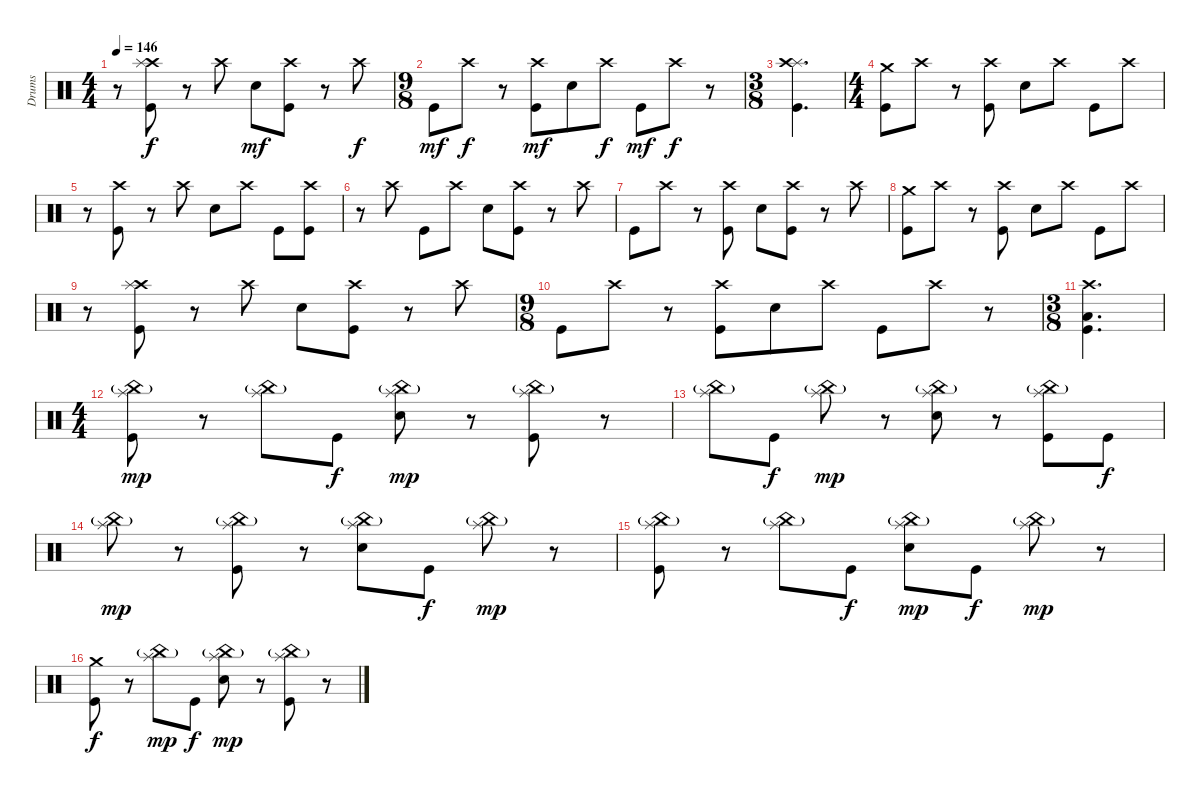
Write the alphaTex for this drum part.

\track ("Drums" "Drums") {instrument percussion}
\staff {score}
\articulation defaults
\ts (4 4)
\tempo 146
\clef neutral
\ks c
r.8{dy f} ("Crash high (hit)" "Splash (hit)" "Kick (hit)").8 r.8 "Crash high (hit)".8 "Electric Snare (hit)".8{dy mf} ("Crash high (hit)" "Kick (hit)").8 r.8 "Crash high (hit)".8{dy f} |
\ts (9 8)
"Kick (hit)".8{dy mf} "Crash high (hit)".8{dy f} r.8 ("Crash high (hit)" "Kick (hit)").8{dy mf} "Electric Snare (hit)".8 "Crash high (hit)".8{dy f} "Kick (hit)".8{dy mf} "Crash high (hit)".8{dy f} r.8 |
\ts (3 8)
("Splash (hit)" "Crash high (hit)" "Kick (hit)").4{d} |
\ts (4 4)
("Crash medium (hit)" "Kick (hit)").8 "Crash high (hit)".8 r.8 ("Crash high (hit)" "Kick (hit)").8 "Electric Snare (hit)".8 "Crash high (hit)".8 "Kick (hit)".8 "Crash high (hit)".8 |
r.8 ("Crash high (hit)" "Kick (hit)").8 r.8 "Crash high (hit)".8 "Electric Snare (hit)".8 "Crash high (hit)".8 "Kick (hit)".8 ("Crash high (hit)" "Kick (hit)").8 |
r.8 "Crash high (hit)".8 "Kick (hit)".8 "Crash high (hit)".8 "Electric Snare (hit)".8 ("Crash high (hit)" "Kick (hit)").8 r.8 "Crash high (hit)".8 |
"Kick (hit)".8 "Crash high (hit)".8 r.8 ("Crash high (hit)" "Kick (hit)").8 "Electric Snare (hit)".8 ("Crash high (hit)" "Kick (hit)").8 r.8 "Crash high (hit)".8 |
("Crash medium (hit)" "Kick (hit)").8 "Crash high (hit)".8 r.8 ("Crash high (hit)" "Kick (hit)").8 "Electric Snare (hit)".8 "Crash high (hit)".8 "Kick (hit)".8 "Crash high (hit)".8 |
r.8 ("Crash high (hit)" "Splash (hit)" "Kick (hit)").8 r.8 "Crash high (hit)".8 "Electric Snare (hit)".8 ("Crash high (hit)" "Kick (hit)").8 r.8 "Crash high (hit)".8 |
\ts (9 8)
"Kick (hit)".8 "Crash high (hit)".8 r.8 ("Crash high (hit)" "Kick (hit)").8 "Electric Snare (hit)".8 "Crash high (hit)".8 "Kick (hit)".8 "Crash high (hit)".8 r.8 |
\ts (3 8)
("Crash high (hit)" "Low Floor Tom (hit)" "Kick (hit)").4{d} |
\ts (4 4)
("Splash (hit)" "China (hit)"{g} "Kick (hit)").8{dy mp} r.8 ("Splash (hit)" "China (hit)"{g}).8 "Kick (hit)".8{dy f} ("Splash (hit)" "China (hit)"{g} "Electric Snare (hit)").8{dy mp} r.8 ("Splash (hit)" "China (hit)"{g} "Kick (hit)").8 r.8 |
("Splash (hit)" "China (hit)"{g}).8 "Kick (hit)".8{dy f} ("Splash (hit)" "China (hit)"{g}).8{dy mp} r.8 ("Splash (hit)" "China (hit)"{g} "Electric Snare (hit)").8 r.8 ("Splash (hit)" "China (hit)"{g} "Kick (hit)").8 "Kick (hit)".8{dy f} |
("Splash (hit)" "China (hit)"{g}).8{dy mp} r.8 ("Splash (hit)" "China (hit)"{g} "Kick (hit)").8 r.8 ("Splash (hit)" "China (hit)"{g} "Electric Snare (hit)").8 "Kick (hit)".8{dy f} ("Splash (hit)" "China (hit)"{g}).8{dy mp} r.8 |
("Splash (hit)" "China (hit)"{g} "Kick (hit)").8 r.8 ("Splash (hit)" "China (hit)"{g}).8 "Kick (hit)".8{dy f} ("Splash (hit)" "China (hit)"{g} "Electric Snare (hit)").8{dy mp} "Kick (hit)".8{dy f} ("Splash (hit)" "China (hit)"{g}).8{dy mp} r.8 |
("Crash medium (hit)" "Kick (hit)").8{dy f} r.8 ("Splash (hit)" "China (hit)"{g}).8{dy mp} "Kick (hit)".8{dy f} ("Splash (hit)" "China (hit)"{g} "Electric Snare (hit)").8{dy mp} r.8 ("Splash (hit)" "China (hit)"{g} "Kick (hit)").8 r.8
